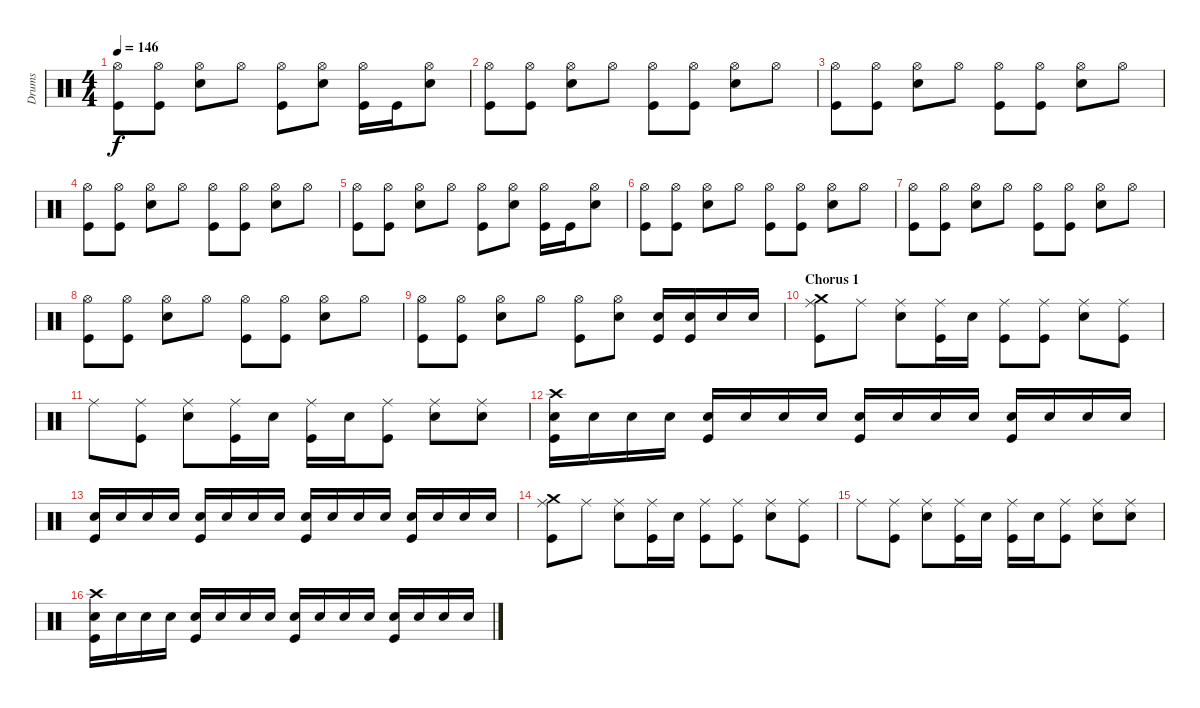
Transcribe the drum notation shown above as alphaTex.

\track ("Drums" "Drums") {instrument percussion}
\staff {score}
\articulation defaults
\ts (4 4)
\tempo 146
\clef neutral
\ks c
("Hi-Hat (open)" "Kick (hit)").8{dy f} ("Hi-Hat (open)" "Kick (hit)").8 ("Hi-Hat (open)" "Snare (hit) 2").8 "Hi-Hat (open)".8 ("Hi-Hat (open)" "Kick (hit)").8 ("Hi-Hat (open)" "Snare (hit) 2").8 ("Hi-Hat (open)" "Kick (hit)").16 "Kick (hit)".16 ("Hi-Hat (open)" "Snare (hit) 2").8 |
("Hi-Hat (open)" "Kick (hit)").8 ("Hi-Hat (open)" "Kick (hit)").8 ("Hi-Hat (open)" "Snare (hit) 2").8 "Hi-Hat (open)".8 ("Hi-Hat (open)" "Kick (hit)").8 ("Hi-Hat (open)" "Kick (hit)").8 ("Hi-Hat (open)" "Snare (hit) 2").8 "Hi-Hat (open)".8 |
("Hi-Hat (open)" "Kick (hit)").8 ("Hi-Hat (open)" "Kick (hit)").8 ("Hi-Hat (open)" "Snare (hit) 2").8 "Hi-Hat (open)".8 ("Hi-Hat (open)" "Kick (hit)").8 ("Hi-Hat (open)" "Kick (hit)").8 ("Hi-Hat (open)" "Snare (hit) 2").8 "Hi-Hat (open)".8 |
("Hi-Hat (open)" "Kick (hit)").8 ("Hi-Hat (open)" "Kick (hit)").8 ("Hi-Hat (open)" "Snare (hit) 2").8 "Hi-Hat (open)".8 ("Hi-Hat (open)" "Kick (hit)").8 ("Hi-Hat (open)" "Kick (hit)").8 ("Hi-Hat (open)" "Snare (hit) 2").8 "Hi-Hat (open)".8 |
("Hi-Hat (open)" "Kick (hit)").8 ("Hi-Hat (open)" "Kick (hit)").8 ("Hi-Hat (open)" "Snare (hit) 2").8 "Hi-Hat (open)".8 ("Hi-Hat (open)" "Kick (hit)").8 ("Hi-Hat (open)" "Snare (hit) 2").8 ("Hi-Hat (open)" "Kick (hit)").16 "Kick (hit)".16 ("Hi-Hat (open)" "Snare (hit) 2").8 |
("Hi-Hat (open)" "Kick (hit)").8 ("Hi-Hat (open)" "Kick (hit)").8 ("Hi-Hat (open)" "Snare (hit) 2").8 "Hi-Hat (open)".8 ("Hi-Hat (open)" "Kick (hit)").8 ("Hi-Hat (open)" "Kick (hit)").8 ("Hi-Hat (open)" "Snare (hit) 2").8 "Hi-Hat (open)".8 |
("Hi-Hat (open)" "Kick (hit)").8 ("Hi-Hat (open)" "Kick (hit)").8 ("Hi-Hat (open)" "Snare (hit) 2").8 "Hi-Hat (open)".8 ("Hi-Hat (open)" "Kick (hit)").8 ("Hi-Hat (open)" "Kick (hit)").8 ("Hi-Hat (open)" "Snare (hit) 2").8 "Hi-Hat (open)".8 |
("Hi-Hat (open)" "Kick (hit)").8 ("Hi-Hat (open)" "Kick (hit)").8 ("Hi-Hat (open)" "Snare (hit) 2").8 "Hi-Hat (open)".8 ("Hi-Hat (open)" "Kick (hit)").8 ("Hi-Hat (open)" "Kick (hit)").8 ("Hi-Hat (open)" "Snare (hit) 2").8 "Hi-Hat (open)".8 |
("Hi-Hat (open)" "Kick (hit)").8 ("Hi-Hat (open)" "Kick (hit)").8 ("Hi-Hat (open)" "Snare (hit) 2").8 "Hi-Hat (open)".8 ("Hi-Hat (open)" "Kick (hit)").8 ("Hi-Hat (open)" "Snare (hit) 2").8 ("Snare (hit) 2" "Kick (hit)").16 ("Snare (hit) 2" "Kick (hit)").16 "Snare (hit) 2".16 "Snare (hit) 2".16 |
\section ("" "Chorus 1")
("Ride (middle)" "Crash medium (hit)" "Kick (hit)").8 "Ride (middle)".8 ("Ride (middle)" "Snare (hit) 2").8 ("Ride (middle)" "Kick (hit)").16 "Snare (hit) 2".16 ("Ride (middle)" "Kick (hit)").8 ("Ride (middle)" "Kick (hit)").8 ("Ride (middle)" "Snare (hit) 2").8 ("Ride (middle)" "Kick (hit)").8 |
"Ride (middle)".8 ("Ride (middle)" "Kick (hit)").8 ("Ride (middle)" "Snare (hit) 2").8 ("Ride (middle)" "Kick (hit)").16 "Snare (hit) 2".16 ("Ride (middle)" "Kick (hit)").16 "Snare (hit) 2".16 ("Ride (middle)" "Kick (hit)").8 ("Ride (middle)" "Snare (hit) 2").8 ("Ride (middle)" "Snare (hit) 2").8 |
("Crash high (hit)" "Snare (hit) 2" "Kick (hit)").16 "Snare (hit) 2".16 "Snare (hit) 2".16 "Snare (hit) 2".16 ("Snare (hit) 2" "Kick (hit)").16 "Snare (hit) 2".16 "Snare (hit) 2".16 "Snare (hit) 2".16 ("Snare (hit) 2" "Kick (hit)").16 "Snare (hit) 2".16 "Snare (hit) 2".16 "Snare (hit) 2".16 ("Snare (hit) 2" "Kick (hit)").16 "Snare (hit) 2".16 "Snare (hit) 2".16 "Snare (hit) 2".16 |
("Snare (hit) 2" "Kick (hit)").16 "Snare (hit) 2".16 "Snare (hit) 2".16 "Snare (hit) 2".16 ("Snare (hit) 2" "Kick (hit)").16 "Snare (hit) 2".16 "Snare (hit) 2".16 "Snare (hit) 2".16 ("Snare (hit) 2" "Kick (hit)").16 "Snare (hit) 2".16 "Snare (hit) 2".16 "Snare (hit) 2".16 ("Snare (hit) 2" "Kick (hit)").16 "Snare (hit) 2".16 "Snare (hit) 2".16 "Snare (hit) 2".16 |
("Ride (middle)" "Crash medium (hit)" "Kick (hit)").8 "Ride (middle)".8 ("Ride (middle)" "Snare (hit) 2").8 ("Ride (middle)" "Kick (hit)").16 "Snare (hit) 2".16 ("Ride (middle)" "Kick (hit)").8 ("Ride (middle)" "Kick (hit)").8 ("Ride (middle)" "Snare (hit) 2").8 ("Ride (middle)" "Kick (hit)").8 |
"Ride (middle)".8 ("Ride (middle)" "Kick (hit)").8 ("Ride (middle)" "Snare (hit) 2").8 ("Ride (middle)" "Kick (hit)").16 "Snare (hit) 2".16 ("Ride (middle)" "Kick (hit)").16 "Snare (hit) 2".16 ("Ride (middle)" "Kick (hit)").8 ("Ride (middle)" "Snare (hit) 2").8 ("Ride (middle)" "Snare (hit) 2").8 |
("Crash high (hit)" "Snare (hit) 2" "Kick (hit)").16 "Snare (hit) 2".16 "Snare (hit) 2".16 "Snare (hit) 2".16 ("Snare (hit) 2" "Kick (hit)").16 "Snare (hit) 2".16 "Snare (hit) 2".16 "Snare (hit) 2".16 ("Snare (hit) 2" "Kick (hit)").16 "Snare (hit) 2".16 "Snare (hit) 2".16 "Snare (hit) 2".16 ("Snare (hit) 2" "Kick (hit)").16 "Snare (hit) 2".16 "Snare (hit) 2".16 "Snare (hit) 2".16
